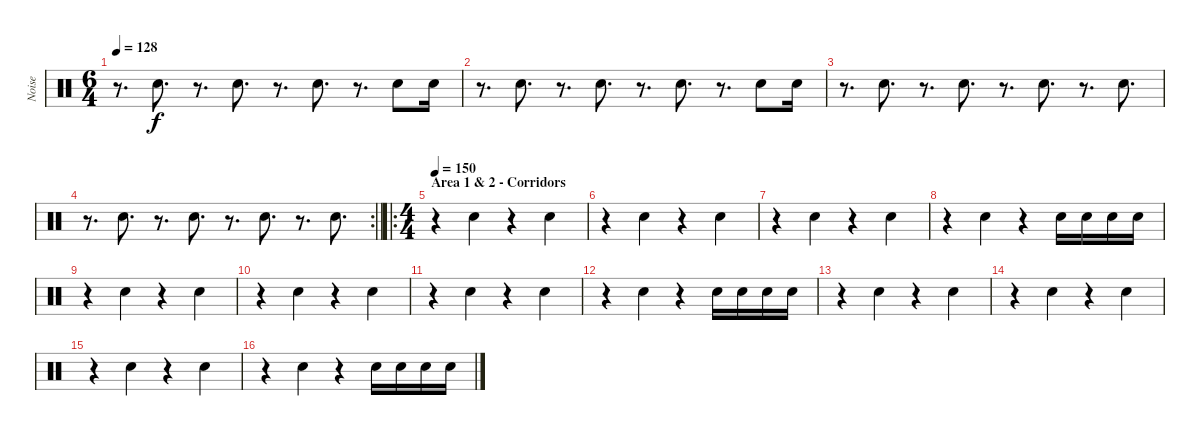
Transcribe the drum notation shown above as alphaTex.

\track ("Noise" "Noise") {instrument percussion}
\staff {score}
\articulation defaults
\ts (6 4)
\tempo 128
\clef neutral
\ks c
r.8{d dy f} "Snare (hit) 2".8{d} r.8{d} "Snare (hit) 2".8{d} r.8{d} "Snare (hit) 2".8{d} r.8{d} "Snare (hit) 2".8 "Snare (hit) 2".16 |
r.8{d} "Snare (hit) 2".8{d} r.8{d} "Snare (hit) 2".8{d} r.8{d} "Snare (hit) 2".8{d} r.8{d} "Snare (hit) 2".8 "Snare (hit) 2".16 |
r.8{d} "Snare (hit) 2".8{d} r.8{d} "Snare (hit) 2".8{d} r.8{d} "Snare (hit) 2".8{d} r.8{d} "Snare (hit) 2".8{d} |
\rc 2
\barLineRight lightlight
r.8{d} "Snare (hit) 2".8{d} r.8{d} "Snare (hit) 2".8{d} r.8{d} "Snare (hit) 2".8{d} r.8{d} "Snare (hit) 2".8{d} |
\ro
\ts (4 4)
\section ("" "Area 1 & 2 - Corridors")
\tempo 150
r.4{volume 13} "Snare (hit) 2".4 r.4 "Snare (hit) 2".4 |
r.4 "Snare (hit) 2".4 r.4 "Snare (hit) 2".4 |
r.4 "Snare (hit) 2".4 r.4 "Snare (hit) 2".4 |
r.4 "Snare (hit) 2".4 r.4 "Snare (hit) 2".16 "Snare (hit) 2".16 "Snare (hit) 2".16 "Snare (hit) 2".16 |
r.4 "Snare (hit) 2".4 r.4 "Snare (hit) 2".4 |
r.4 "Snare (hit) 2".4 r.4 "Snare (hit) 2".4 |
r.4 "Snare (hit) 2".4 r.4 "Snare (hit) 2".4 |
r.4 "Snare (hit) 2".4 r.4 "Snare (hit) 2".16 "Snare (hit) 2".16 "Snare (hit) 2".16 "Snare (hit) 2".16 |
r.4 "Snare (hit) 2".4 r.4 "Snare (hit) 2".4 |
r.4 "Snare (hit) 2".4 r.4 "Snare (hit) 2".4 |
r.4 "Snare (hit) 2".4 r.4 "Snare (hit) 2".4 |
r.4 "Snare (hit) 2".4 r.4 "Snare (hit) 2".16 "Snare (hit) 2".16 "Snare (hit) 2".16 "Snare (hit) 2".16
